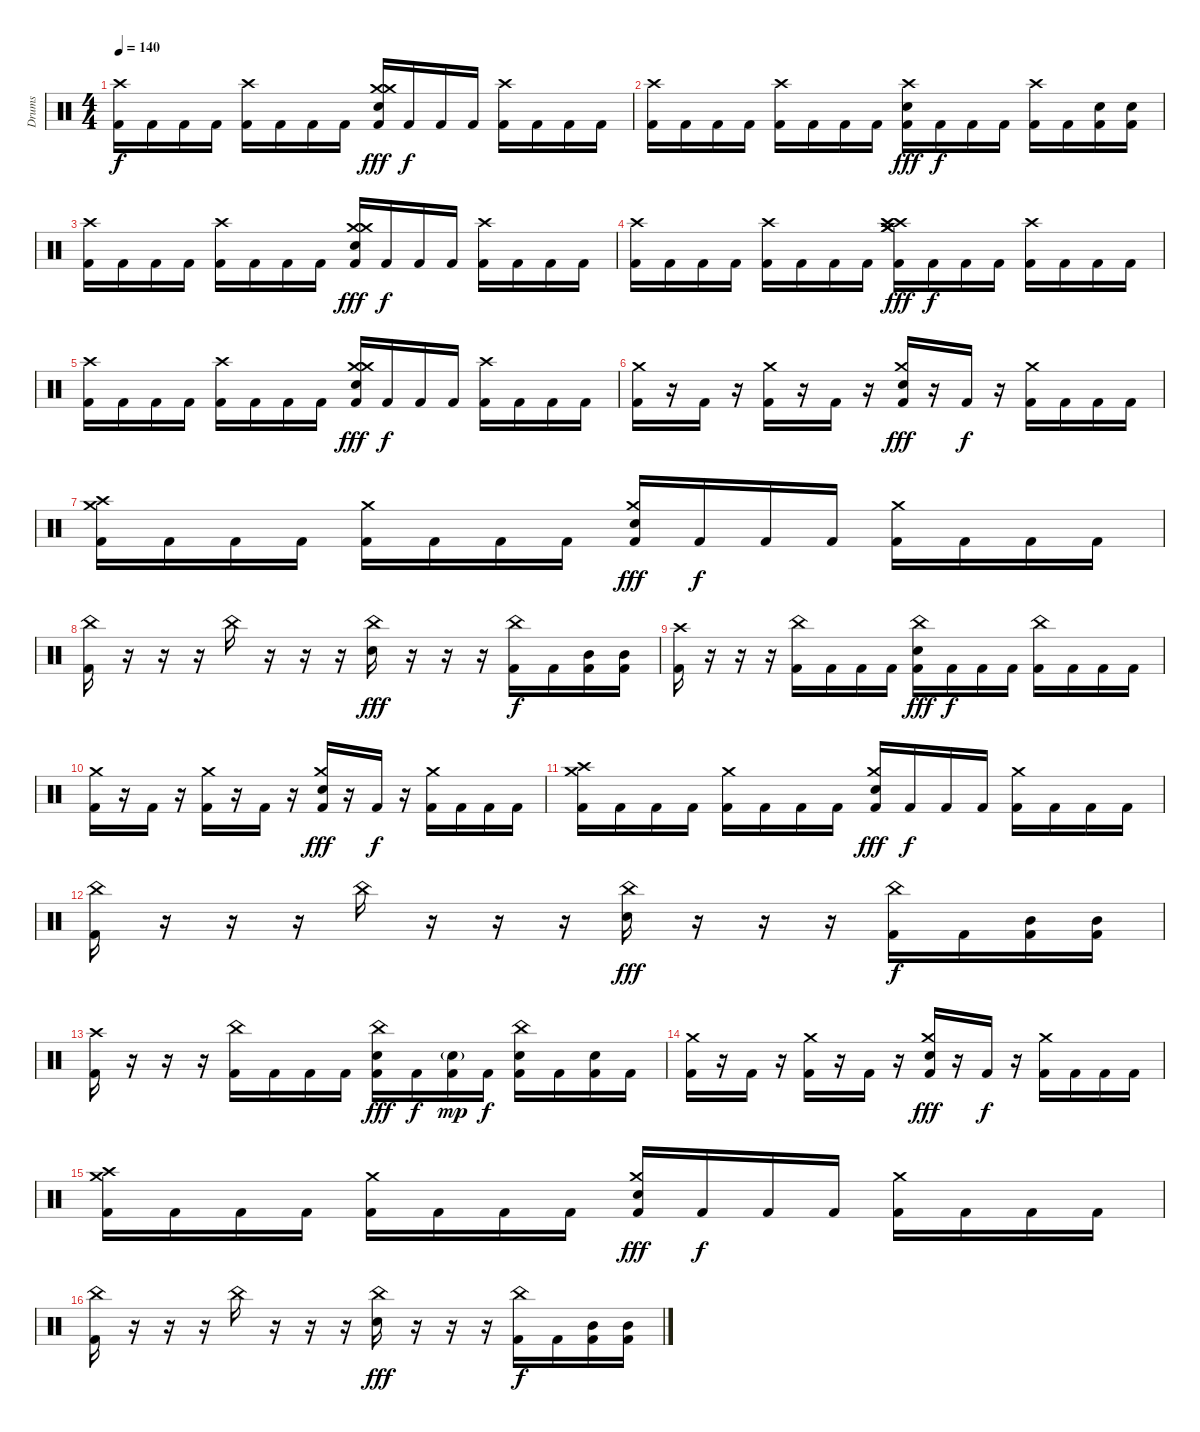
\track ("Drums" "Drums") {instrument percussion}
\staff {score}
\articulation defaults
\ts (4 4)
\tempo 140
\clef neutral
\ks c
("Crash high (hit)" "Kick (hit) 2").16{dy f} "Kick (hit) 2".16 "Kick (hit) 2".16 "Kick (hit) 2".16 ("Crash high (hit)" "Kick (hit) 2").16 "Kick (hit) 2".16 "Kick (hit) 2".16 "Kick (hit) 2".16 ("Crash medium (hit)" "Crash medium (hit)" "Snare (hit) 2" "Kick (hit) 2").16{dy fff} "Kick (hit) 2".16{dy f} "Kick (hit) 2".16 "Kick (hit) 2".16 ("Crash high (hit)" "Kick (hit) 2").16 "Kick (hit) 2".16 "Kick (hit) 2".16 "Kick (hit) 2".16 |
("Crash high (hit)" "Kick (hit) 2").16 "Kick (hit) 2".16 "Kick (hit) 2".16 "Kick (hit) 2".16 ("Crash high (hit)" "Kick (hit) 2").16 "Kick (hit) 2".16 "Kick (hit) 2".16 "Kick (hit) 2".16 ("Crash high (hit)" "Snare (hit) 2" "Kick (hit) 2").16{dy fff} "Kick (hit) 2".16{dy f} "Kick (hit) 2".16 "Kick (hit) 2".16 ("Crash high (hit)" "Kick (hit) 2").16 "Kick (hit) 2".16 ("Snare (hit) 2" "Kick (hit) 2").16 ("Snare (hit) 2" "Kick (hit) 2").16 |
("Crash high (hit)" "Kick (hit) 2").16 "Kick (hit) 2".16 "Kick (hit) 2".16 "Kick (hit) 2".16 ("Crash high (hit)" "Kick (hit) 2").16 "Kick (hit) 2".16 "Kick (hit) 2".16 "Kick (hit) 2".16 ("Crash medium (hit)" "Crash medium (hit)" "Snare (hit) 2" "Kick (hit) 2").16{dy fff} "Kick (hit) 2".16{dy f} "Kick (hit) 2".16 "Kick (hit) 2".16 ("Crash high (hit)" "Kick (hit) 2").16 "Kick (hit) 2".16 "Kick (hit) 2".16 "Kick (hit) 2".16 |
("Crash high (hit)" "Kick (hit) 2").16 "Kick (hit) 2".16 "Kick (hit) 2".16 "Kick (hit) 2".16 ("Crash high (hit)" "Kick (hit) 2").16 "Kick (hit) 2".16 "Kick (hit) 2".16 "Kick (hit) 2".16 ("Crash medium (hit)" "Crash high (hit)" "Crash high (hit)" "Crash medium (hit)" "Kick (hit) 2").16{dy fff} "Kick (hit) 2".16{dy f} "Kick (hit) 2".16 "Kick (hit) 2".16 ("Crash high (hit)" "Kick (hit) 2").16 "Kick (hit) 2".16 "Kick (hit) 2".16 "Kick (hit) 2".16 |
("Crash high (hit)" "Kick (hit) 2").16 "Kick (hit) 2".16 "Kick (hit) 2".16 "Kick (hit) 2".16 ("Crash high (hit)" "Kick (hit) 2").16 "Kick (hit) 2".16 "Kick (hit) 2".16 "Kick (hit) 2".16 ("Crash medium (hit)" "Crash medium (hit)" "Snare (hit) 2" "Kick (hit) 2").16{dy fff} "Kick (hit) 2".16{dy f} "Kick (hit) 2".16 "Kick (hit) 2".16 ("Crash high (hit)" "Kick (hit) 2").16 "Kick (hit) 2".16 "Kick (hit) 2".16 "Kick (hit) 2".16 |
("Crash medium (hit)" "Kick (hit) 2").16 r.16 "Kick (hit) 2".16 r.16 ("Crash medium (hit)" "Kick (hit) 2").16 r.16 "Kick (hit) 2".16 r.16 ("Crash medium (hit)" "Snare (hit) 2" "Kick (hit) 2").16{dy fff} r.16 "Kick (hit) 2".16{dy f} r.16 ("Crash medium (hit)" "Kick (hit) 2").16 "Kick (hit) 2".16 "Kick (hit) 2".16 "Kick (hit) 2".16 |
("Crash medium (hit)" "Crash high (hit)" "Kick (hit) 2").16 "Kick (hit) 2".16 "Kick (hit) 2".16 "Kick (hit) 2".16 ("Crash medium (hit)" "Kick (hit) 2").16 "Kick (hit) 2".16 "Kick (hit) 2".16 "Kick (hit) 2".16 ("Crash medium (hit)" "Snare (hit) 2" "Kick (hit) 2").16{dy fff} "Kick (hit) 2".16{dy f} "Kick (hit) 2".16 "Kick (hit) 2".16 ("Crash medium (hit)" "Kick (hit) 2").16 "Kick (hit) 2".16 "Kick (hit) 2".16 "Kick (hit) 2".16 |
("China (hit)" "Kick (hit) 2").16 r.16 r.16 r.16 "China (hit)".16 r.16 r.16 r.16 ("China (hit)" "Snare (hit) 2").16{dy fff} r.16 r.16 r.16 ("China (hit)" "Kick (hit) 2").16{dy f} "Kick (hit) 2".16 ("Mid Tom (hit)" "Kick (hit) 2").16 ("Mid Tom (hit)" "Kick (hit) 2").16 |
("Crash high (hit)" "Kick (hit) 2").16 r.16 r.16 r.16 ("China (hit)" "Kick (hit) 2").16 "Kick (hit) 2".16 "Kick (hit) 2".16 "Kick (hit) 2".16 ("China (hit)" "Snare (hit) 2" "Kick (hit) 2").16{dy fff} "Kick (hit) 2".16{dy f} "Kick (hit) 2".16 "Kick (hit) 2".16 ("China (hit)" "Kick (hit) 2").16 "Kick (hit) 2".16 "Kick (hit) 2".16 "Kick (hit) 2".16 |
("Crash medium (hit)" "Kick (hit) 2").16 r.16 "Kick (hit) 2".16 r.16 ("Crash medium (hit)" "Kick (hit) 2").16 r.16 "Kick (hit) 2".16 r.16 ("Crash medium (hit)" "Snare (hit) 2" "Kick (hit) 2").16{dy fff} r.16 "Kick (hit) 2".16{dy f} r.16 ("Crash medium (hit)" "Kick (hit) 2").16 "Kick (hit) 2".16 "Kick (hit) 2".16 "Kick (hit) 2".16 |
("Crash medium (hit)" "Crash high (hit)" "Kick (hit) 2").16 "Kick (hit) 2".16 "Kick (hit) 2".16 "Kick (hit) 2".16 ("Crash medium (hit)" "Kick (hit) 2").16 "Kick (hit) 2".16 "Kick (hit) 2".16 "Kick (hit) 2".16 ("Crash medium (hit)" "Snare (hit) 2" "Kick (hit) 2").16{dy fff} "Kick (hit) 2".16{dy f} "Kick (hit) 2".16 "Kick (hit) 2".16 ("Crash medium (hit)" "Kick (hit) 2").16 "Kick (hit) 2".16 "Kick (hit) 2".16 "Kick (hit) 2".16 |
("China (hit)" "Kick (hit) 2").16 r.16 r.16 r.16 "China (hit)".16 r.16 r.16 r.16 ("China (hit)" "Snare (hit) 2").16{dy fff} r.16 r.16 r.16 ("China (hit)" "Kick (hit) 2").16{dy f} "Kick (hit) 2".16 ("Mid Tom (hit)" "Kick (hit) 2").16 ("Mid Tom (hit)" "Kick (hit) 2").16 |
("Crash high (hit)" "Kick (hit) 2").16 r.16 r.16 r.16 ("China (hit)" "Kick (hit) 2").16 "Kick (hit) 2".16 "Kick (hit) 2".16 "Kick (hit) 2".16 ("China (hit)" "Snare (hit) 2" "Kick (hit) 2").16{dy fff} "Kick (hit) 2".16{dy f} ("Snare (hit) 2"{g} "Kick (hit) 2").16{dy mp} "Kick (hit) 2".16{dy f} ("China (hit)" "Snare (hit) 2" "Kick (hit) 2").16 "Kick (hit) 2".16 ("Snare (hit) 2" "Kick (hit) 2").16 "Kick (hit) 2".16 |
("Crash medium (hit)" "Kick (hit) 2").16 r.16 "Kick (hit) 2".16 r.16 ("Crash medium (hit)" "Kick (hit) 2").16 r.16 "Kick (hit) 2".16 r.16 ("Crash medium (hit)" "Snare (hit) 2" "Kick (hit) 2").16{dy fff} r.16 "Kick (hit) 2".16{dy f} r.16 ("Crash medium (hit)" "Kick (hit) 2").16 "Kick (hit) 2".16 "Kick (hit) 2".16 "Kick (hit) 2".16 |
("Crash medium (hit)" "Crash high (hit)" "Kick (hit) 2").16 "Kick (hit) 2".16 "Kick (hit) 2".16 "Kick (hit) 2".16 ("Crash medium (hit)" "Kick (hit) 2").16 "Kick (hit) 2".16 "Kick (hit) 2".16 "Kick (hit) 2".16 ("Crash medium (hit)" "Snare (hit) 2" "Kick (hit) 2").16{dy fff} "Kick (hit) 2".16{dy f} "Kick (hit) 2".16 "Kick (hit) 2".16 ("Crash medium (hit)" "Kick (hit) 2").16 "Kick (hit) 2".16 "Kick (hit) 2".16 "Kick (hit) 2".16 |
("China (hit)" "Kick (hit) 2").16 r.16 r.16 r.16 "China (hit)".16 r.16 r.16 r.16 ("China (hit)" "Snare (hit) 2").16{dy fff} r.16 r.16 r.16 ("China (hit)" "Kick (hit) 2").16{dy f} "Kick (hit) 2".16 ("Mid Tom (hit)" "Kick (hit) 2").16 ("Mid Tom (hit)" "Kick (hit) 2").16
